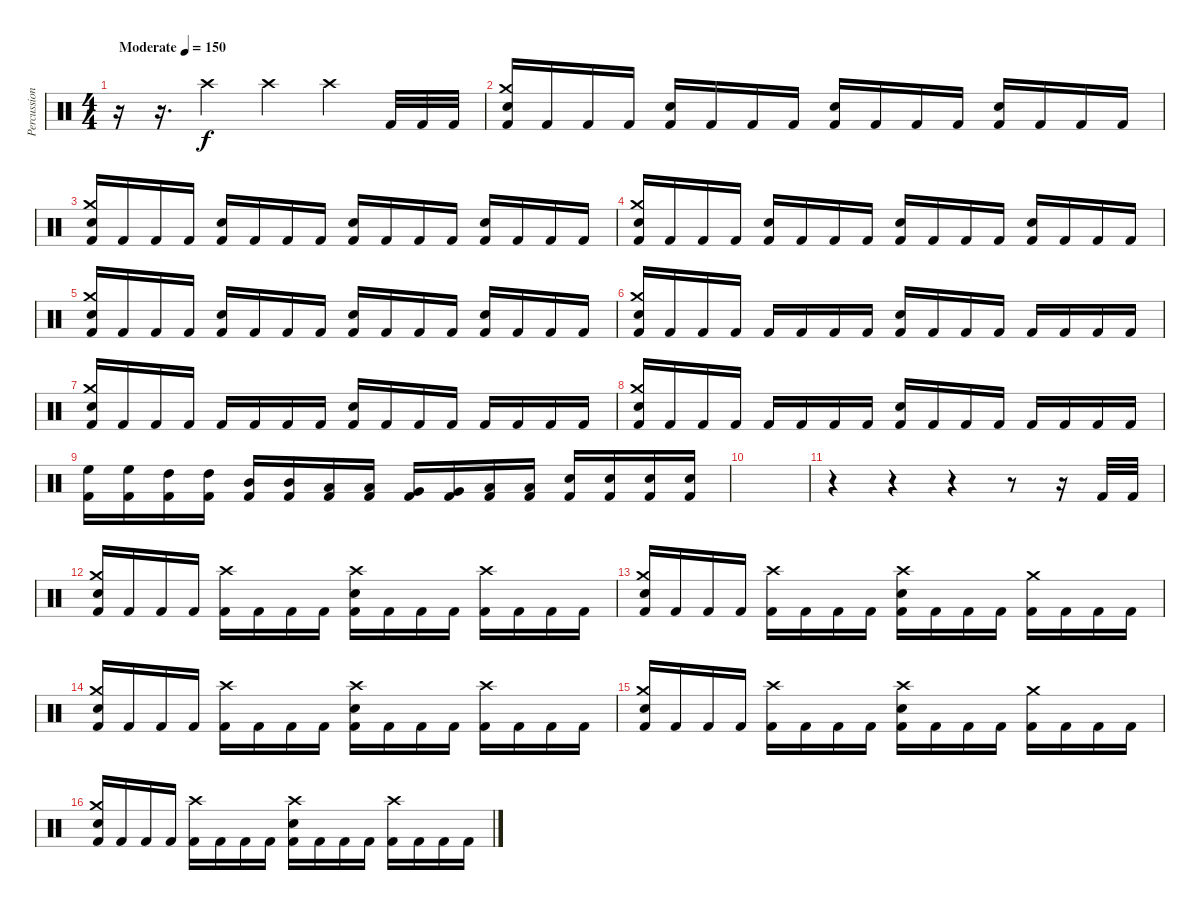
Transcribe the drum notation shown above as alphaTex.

\track ("Percussion" "Percussion") {instrument percussion}
\staff {score}
\articulation defaults
\ts (4 4)
\tempo (150 "Moderate")
\clef neutral
\ks c
r.16{dy f} r.16{d} "Crash high (hit)".4 "Crash high (hit)".4 "Crash high (hit)".4 "Kick (hit) 2".32 "Kick (hit) 2".32 "Kick (hit) 2".32 |
("Crash medium (hit)" "Snare (hit) 2" "Kick (hit) 2").16 "Kick (hit) 2".16 "Kick (hit) 2".16 "Kick (hit) 2".16 ("Snare (hit) 2" "Kick (hit) 2").16 "Kick (hit) 2".16 "Kick (hit) 2".16 "Kick (hit) 2".16 ("Snare (hit) 2" "Kick (hit) 2").16 "Kick (hit) 2".16 "Kick (hit) 2".16 "Kick (hit) 2".16 ("Snare (hit) 2" "Kick (hit) 2").16 "Kick (hit) 2".16 "Kick (hit) 2".16 "Kick (hit) 2".16 |
("Crash medium (hit)" "Snare (hit) 2" "Kick (hit) 2").16 "Kick (hit) 2".16 "Kick (hit) 2".16 "Kick (hit) 2".16 ("Snare (hit) 2" "Kick (hit) 2").16 "Kick (hit) 2".16 "Kick (hit) 2".16 "Kick (hit) 2".16 ("Snare (hit) 2" "Kick (hit) 2").16 "Kick (hit) 2".16 "Kick (hit) 2".16 "Kick (hit) 2".16 ("Snare (hit) 2" "Kick (hit) 2").16 "Kick (hit) 2".16 "Kick (hit) 2".16 "Kick (hit) 2".16 |
("Crash medium (hit)" "Snare (hit) 2" "Kick (hit) 2").16 "Kick (hit) 2".16 "Kick (hit) 2".16 "Kick (hit) 2".16 ("Snare (hit) 2" "Kick (hit) 2").16 "Kick (hit) 2".16 "Kick (hit) 2".16 "Kick (hit) 2".16 ("Snare (hit) 2" "Kick (hit) 2").16 "Kick (hit) 2".16 "Kick (hit) 2".16 "Kick (hit) 2".16 ("Snare (hit) 2" "Kick (hit) 2").16 "Kick (hit) 2".16 "Kick (hit) 2".16 "Kick (hit) 2".16 |
("Crash medium (hit)" "Snare (hit) 2" "Kick (hit) 2").16 "Kick (hit) 2".16 "Kick (hit) 2".16 "Kick (hit) 2".16 ("Snare (hit) 2" "Kick (hit) 2").16 "Kick (hit) 2".16 "Kick (hit) 2".16 "Kick (hit) 2".16 ("Snare (hit) 2" "Kick (hit) 2").16 "Kick (hit) 2".16 "Kick (hit) 2".16 "Kick (hit) 2".16 ("Snare (hit) 2" "Kick (hit) 2").16 "Kick (hit) 2".16 "Kick (hit) 2".16 "Kick (hit) 2".16 |
("Crash medium (hit)" "Snare (hit) 2" "Kick (hit) 2").16 "Kick (hit) 2".16 "Kick (hit) 2".16 "Kick (hit) 2".16 "Kick (hit) 2".16 "Kick (hit) 2".16 "Kick (hit) 2".16 "Kick (hit) 2".16 ("Snare (hit) 2" "Kick (hit) 2").16 "Kick (hit) 2".16 "Kick (hit) 2".16 "Kick (hit) 2".16 "Kick (hit) 2".16 "Kick (hit) 2".16 "Kick (hit) 2".16 "Kick (hit) 2".16 |
("Crash medium (hit)" "Snare (hit) 2" "Kick (hit) 2").16 "Kick (hit) 2".16 "Kick (hit) 2".16 "Kick (hit) 2".16 "Kick (hit) 2".16 "Kick (hit) 2".16 "Kick (hit) 2".16 "Kick (hit) 2".16 ("Snare (hit) 2" "Kick (hit) 2").16 "Kick (hit) 2".16 "Kick (hit) 2".16 "Kick (hit) 2".16 "Kick (hit) 2".16 "Kick (hit) 2".16 "Kick (hit) 2".16 "Kick (hit) 2".16 |
("Crash medium (hit)" "Snare (hit) 2" "Kick (hit) 2").16 "Kick (hit) 2".16 "Kick (hit) 2".16 "Kick (hit) 2".16 "Kick (hit) 2".16 "Kick (hit) 2".16 "Kick (hit) 2".16 "Kick (hit) 2".16 ("Snare (hit) 2" "Kick (hit) 2").16 "Kick (hit) 2".16 "Kick (hit) 2".16 "Kick (hit) 2".16 "Kick (hit) 2".16 "Kick (hit) 2".16 "Kick (hit) 2".16 "Kick (hit) 2".16 |
("High Floor Tom (hit)" "Kick (hit) 2").16 ("High Floor Tom (hit)" "Kick (hit) 2").16 ("High Tom (hit)" "Kick (hit) 2").16 ("High Tom (hit)" "Kick (hit) 2").16 ("Mid Tom (hit)" "Kick (hit) 2").16 ("Mid Tom (hit)" "Kick (hit) 2").16 ("Low Tom (hit)" "Kick (hit) 2").16 ("Low Tom (hit)" "Kick (hit) 2").16 ("Very Low Tom (hit)" "Kick (hit) 2").16 ("Very Low Tom (hit)" "Kick (hit) 2").16 ("Low Floor Tom (hit)" "Kick (hit) 2").16 ("Low Floor Tom (hit)" "Kick (hit) 2").16 ("Snare (hit) 2" "Kick (hit) 2").16 ("Snare (hit) 2" "Kick (hit) 2").16 ("Snare (hit) 2" "Kick (hit) 2").16 ("Snare (hit) 2" "Kick (hit) 2").16 |
|
r.4 r.4 r.4 r.8 r.16 "Kick (hit) 2".32 "Kick (hit) 2".32 |
("Crash medium (hit)" "Snare (hit) 2" "Kick (hit) 2").16 "Kick (hit) 2".16 "Kick (hit) 2".16 "Kick (hit) 2".16 ("Crash high (hit)" "Kick (hit) 2").16 "Kick (hit) 2".16 "Kick (hit) 2".16 "Kick (hit) 2".16 ("Crash high (hit)" "Snare (hit) 2" "Kick (hit) 2").16 "Kick (hit) 2".16 "Kick (hit) 2".16 "Kick (hit) 2".16 ("Crash high (hit)" "Kick (hit) 2").16 "Kick (hit) 2".16 "Kick (hit) 2".16 "Kick (hit) 2".16 |
("Crash medium (hit)" "Snare (hit) 2" "Kick (hit) 2").16 "Kick (hit) 2".16 "Kick (hit) 2".16 "Kick (hit) 2".16 ("Crash high (hit)" "Kick (hit) 2").16 "Kick (hit) 2".16 "Kick (hit) 2".16 "Kick (hit) 2".16 ("Crash high (hit)" "Snare (hit) 2" "Kick (hit) 2").16 "Kick (hit) 2".16 "Kick (hit) 2".16 "Kick (hit) 2".16 ("Crash medium (hit)" "Kick (hit) 2").16 "Kick (hit) 2".16 "Kick (hit) 2".16 "Kick (hit) 2".16 |
("Crash medium (hit)" "Snare (hit) 2" "Kick (hit) 2").16 "Kick (hit) 2".16 "Kick (hit) 2".16 "Kick (hit) 2".16 ("Crash high (hit)" "Kick (hit) 2").16 "Kick (hit) 2".16 "Kick (hit) 2".16 "Kick (hit) 2".16 ("Crash high (hit)" "Snare (hit) 2" "Kick (hit) 2").16 "Kick (hit) 2".16 "Kick (hit) 2".16 "Kick (hit) 2".16 ("Crash high (hit)" "Kick (hit) 2").16 "Kick (hit) 2".16 "Kick (hit) 2".16 "Kick (hit) 2".16 |
("Crash medium (hit)" "Snare (hit) 2" "Kick (hit) 2").16 "Kick (hit) 2".16 "Kick (hit) 2".16 "Kick (hit) 2".16 ("Crash high (hit)" "Kick (hit) 2").16 "Kick (hit) 2".16 "Kick (hit) 2".16 "Kick (hit) 2".16 ("Crash high (hit)" "Snare (hit) 2" "Kick (hit) 2").16 "Kick (hit) 2".16 "Kick (hit) 2".16 "Kick (hit) 2".16 ("Crash medium (hit)" "Kick (hit) 2").16 "Kick (hit) 2".16 "Kick (hit) 2".16 "Kick (hit) 2".16 |
("Crash medium (hit)" "Snare (hit) 2" "Kick (hit) 2").16 "Kick (hit) 2".16 "Kick (hit) 2".16 "Kick (hit) 2".16 ("Crash high (hit)" "Kick (hit) 2").16 "Kick (hit) 2".16 "Kick (hit) 2".16 "Kick (hit) 2".16 ("Crash high (hit)" "Snare (hit) 2" "Kick (hit) 2").16 "Kick (hit) 2".16 "Kick (hit) 2".16 "Kick (hit) 2".16 ("Crash high (hit)" "Kick (hit) 2").16 "Kick (hit) 2".16 "Kick (hit) 2".16 "Kick (hit) 2".16
